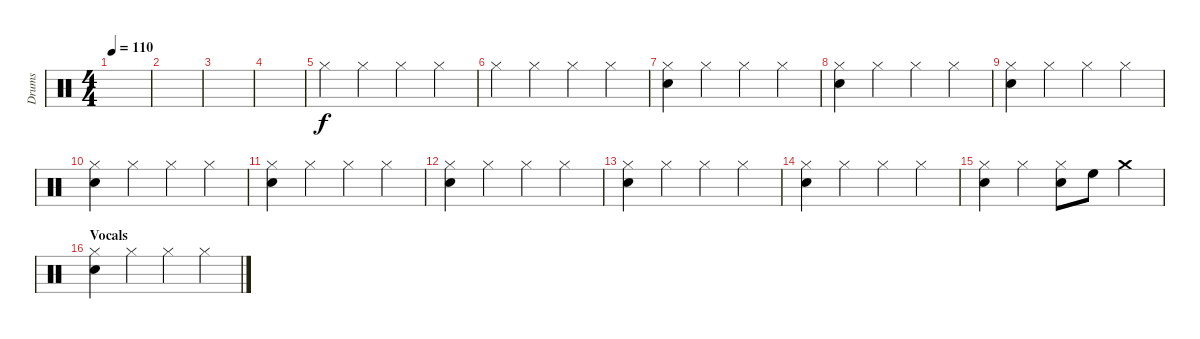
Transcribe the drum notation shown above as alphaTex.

\track ("Drums" "Drums") {instrument percussion}
\staff {score}
\articulation defaults
\ts (4 4)
\tempo 110
\clef neutral
\ks c
|
|
|
|
"Hi-Hat (closed)".4 "Hi-Hat (closed)".4 "Hi-Hat (closed)".4 "Hi-Hat (closed)".4 |
"Hi-Hat (closed)".4 "Hi-Hat (closed)".4 "Hi-Hat (closed)".4 "Hi-Hat (closed)".4 |
("Snare (hit) 2" "Hi-Hat (closed)").4 "Hi-Hat (closed)".4 "Hi-Hat (closed)".4 "Hi-Hat (closed)".4 |
("Snare (hit) 2" "Hi-Hat (closed)").4 "Hi-Hat (closed)".4 "Hi-Hat (closed)".4 "Hi-Hat (closed)".4 |
("Snare (hit) 2" "Hi-Hat (closed)").4 "Hi-Hat (closed)".4 "Hi-Hat (closed)".4 "Hi-Hat (closed)".4 |
("Snare (hit) 2" "Hi-Hat (closed)").4 "Hi-Hat (closed)".4 "Hi-Hat (closed)".4 "Hi-Hat (closed)".4 |
("Snare (hit) 2" "Hi-Hat (closed)").4 "Hi-Hat (closed)".4 "Hi-Hat (closed)".4 "Hi-Hat (closed)".4 |
("Snare (hit) 2" "Hi-Hat (closed)").4 "Hi-Hat (closed)".4 "Hi-Hat (closed)".4 "Hi-Hat (closed)".4 |
("Snare (hit) 2" "Hi-Hat (closed)").4 "Hi-Hat (closed)".4 "Hi-Hat (closed)".4 "Hi-Hat (closed)".4 |
("Snare (hit) 2" "Hi-Hat (closed)").4 "Hi-Hat (closed)".4 "Hi-Hat (closed)".4 "Hi-Hat (closed)".4 |
("Snare (hit) 2" "Hi-Hat (closed)").4 "Hi-Hat (closed)".4 ("Snare (hit) 2" "Hi-Hat (closed)").8 "High Floor Tom (hit)".8 "Crash medium (hit)".4 |
\section ("" "Vocals")
("Snare (hit) 2" "Hi-Hat (closed)").4 "Hi-Hat (closed)".4 "Hi-Hat (closed)".4 "Hi-Hat (closed)".4
